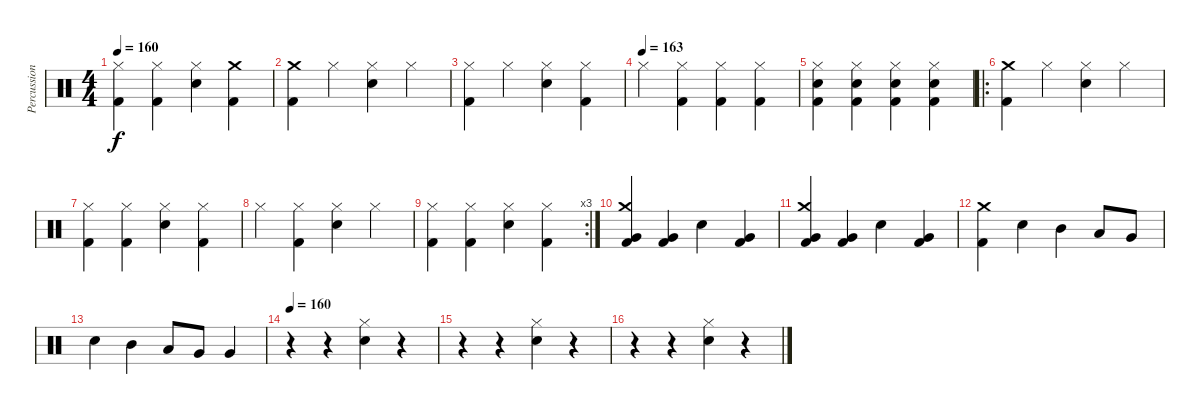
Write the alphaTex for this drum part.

\track ("Percussion" "Percussion") {instrument percussion}
\staff {score}
\articulation defaults
\ts (4 4)
\tempo 160
\clef neutral
\ks c
("Hi-Hat (closed)" "Kick (hit) 2").4{dy f} ("Hi-Hat (closed)" "Kick (hit) 2").4 ("Hi-Hat (closed)" "Snare (hit) 2").4 ("Crash medium (hit)" "Kick (hit) 2").4 |
("Crash medium (hit)" "Kick (hit) 2").4 "Hi-Hat (closed)".4 ("Hi-Hat (closed)" "Snare (hit) 2").4 "Hi-Hat (closed)".4 |
("Hi-Hat (closed)" "Kick (hit) 2").4 "Hi-Hat (closed)".4 ("Hi-Hat (closed)" "Snare (hit) 2").4 ("Hi-Hat (closed)" "Kick (hit) 2").4 |
\tempo (163)
"Hi-Hat (closed)".4{volume 13} ("Hi-Hat (closed)" "Kick (hit) 2").4{volume 16} ("Hi-Hat (closed)" "Kick (hit) 2").4 ("Hi-Hat (closed)" "Kick (hit) 2").4 |
("Hi-Hat (closed)" "Snare (hit) 2" "Kick (hit) 2").4 ("Hi-Hat (closed)" "Snare (hit) 2" "Kick (hit) 2").4 ("Hi-Hat (closed)" "Snare (hit) 2" "Kick (hit) 2").4 ("Hi-Hat (closed)" "Snare (hit) 2" "Kick (hit) 2").4 |
\ro
("Crash medium (hit)" "Kick (hit) 2").4 "Hi-Hat (closed)".4 ("Hi-Hat (closed)" "Snare (hit) 2").4 "Hi-Hat (closed)".4 |
("Hi-Hat (closed)" "Kick (hit) 2").4 ("Hi-Hat (closed)" "Kick (hit) 2").4 ("Hi-Hat (closed)" "Snare (hit) 2").4 ("Hi-Hat (closed)" "Kick (hit) 2").4 |
"Hi-Hat (closed)".4 ("Hi-Hat (closed)" "Kick (hit) 2").4 ("Hi-Hat (closed)" "Snare (hit) 2").4 "Hi-Hat (closed)".4 |
\rc 3
("Hi-Hat (closed)" "Kick (hit) 2").4 ("Hi-Hat (closed)" "Kick (hit) 2").4 ("Hi-Hat (closed)" "Snare (hit) 2").4 ("Hi-Hat (closed)" "Kick (hit) 2").4 |
("Crash medium (hit)" "Very Low Tom (hit)" "Kick (hit) 2").4 ("Very Low Tom (hit)" "Kick (hit) 2").4 "Snare (hit) 2".4 ("Very Low Tom (hit)" "Kick (hit) 2").4 |
("Crash medium (hit)" "Very Low Tom (hit)" "Kick (hit) 2").4 ("Very Low Tom (hit)" "Kick (hit) 2").4 "Snare (hit) 2".4 ("Very Low Tom (hit)" "Kick (hit) 2").4 |
("Crash medium (hit)" "Kick (hit) 2").4 "Snare (hit) 2".4 "Mid Tom (hit)".4 "Low Tom (hit)".8 "Very Low Tom (hit)".8 |
"Snare (hit) 2".4 "Mid Tom (hit)".4 "Low Tom (hit)".8 "Very Low Tom (hit)".8 "Very Low Tom (hit)".4 |
\tempo 160
r.4 r.4 ("Hi-Hat (closed)" "Snare (hit) 2").4 r.4 |
r.4 r.4 ("Hi-Hat (closed)" "Snare (hit) 2").4 r.4 |
r.4 r.4 ("Hi-Hat (closed)" "Snare (hit) 2").4 r.4
